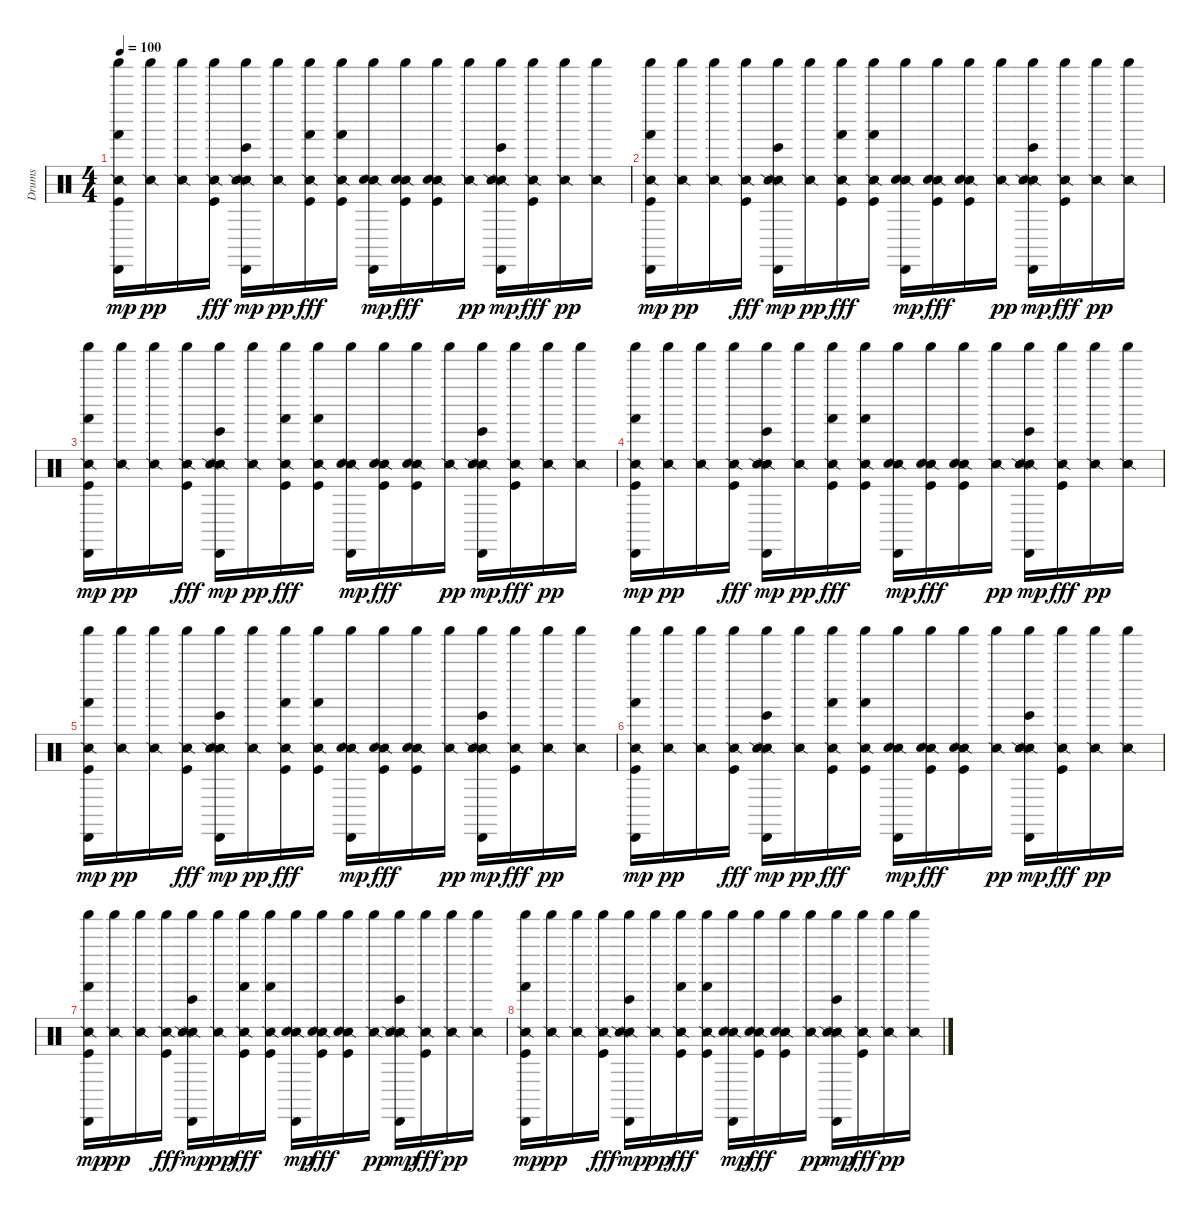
\track ("Drums" "Drums") {instrument percussion}
\staff {score}
\articulation defaults
\ts (4 4)
\tempo 100
\clef neutral
\ks c
("Shaker (hit)" "Snare (side stick) 2" "Hand (hit)" "Kick (hit)" "Cabasa (hit)").16{dy mp} ("Shaker (hit)" "Snare (side stick) 2").16{dy pp} ("Shaker (hit)" "Snare (side stick) 2").16 ("Shaker (hit)" "Snare (side stick) 2" "Kick (hit)").16{dy fff} ("Shaker (hit)" "Snare (side stick) 2" "Bongo High (hit)" "Snare (side stick) 2" "Cabasa (hit)").16{dy mp} ("Shaker (hit)" "Snare (side stick) 2").16{dy pp} ("Shaker (hit)" "Snare (side stick) 2" "Hand (hit)" "Kick (hit)").16{dy fff} ("Shaker (hit)" "Snare (side stick) 2" "Hand (hit)" "Kick (hit)").16 ("Shaker (hit)" "Snare (side stick) 2" "Snare (hit)" "Cabasa (hit)").16{dy mp} ("Shaker (hit)" "Snare (side stick) 2" "Snare (hit)" "Kick (hit)").16{dy fff} ("Shaker (hit)" "Snare (side stick) 2" "Snare (hit)" "Kick (hit)").16 ("Shaker (hit)" "Snare (side stick) 2").16{dy pp} ("Shaker (hit)" "Snare (side stick) 2" "Bongo High (hit)" "Snare (side stick) 2" "Cabasa (hit)").16{dy mp} ("Shaker (hit)" "Snare (side stick) 2" "Kick (hit)").16{dy fff} ("Shaker (hit)" "Snare (side stick) 2").16{dy pp} ("Shaker (hit)" "Snare (side stick) 2").16 |
("Shaker (hit)" "Snare (side stick) 2" "Hand (hit)" "Kick (hit)" "Cabasa (hit)").16{dy mp} ("Shaker (hit)" "Snare (side stick) 2").16{dy pp} ("Shaker (hit)" "Snare (side stick) 2").16 ("Shaker (hit)" "Snare (side stick) 2" "Kick (hit)").16{dy fff} ("Shaker (hit)" "Snare (side stick) 2" "Bongo High (hit)" "Snare (side stick) 2" "Cabasa (hit)").16{dy mp} ("Shaker (hit)" "Snare (side stick) 2").16{dy pp} ("Shaker (hit)" "Snare (side stick) 2" "Hand (hit)" "Kick (hit)").16{dy fff} ("Shaker (hit)" "Snare (side stick) 2" "Hand (hit)" "Kick (hit)").16 ("Shaker (hit)" "Snare (side stick) 2" "Snare (hit)" "Cabasa (hit)").16{dy mp} ("Shaker (hit)" "Snare (side stick) 2" "Snare (hit)" "Kick (hit)").16{dy fff} ("Shaker (hit)" "Snare (side stick) 2" "Snare (hit)" "Kick (hit)").16 ("Shaker (hit)" "Snare (side stick) 2").16{dy pp} ("Shaker (hit)" "Snare (side stick) 2" "Bongo High (hit)" "Snare (side stick) 2" "Cabasa (hit)").16{dy mp} ("Shaker (hit)" "Snare (side stick) 2" "Kick (hit)").16{dy fff} ("Shaker (hit)" "Snare (side stick) 2").16{dy pp} ("Shaker (hit)" "Snare (side stick) 2").16 |
("Shaker (hit)" "Snare (side stick) 2" "Hand (hit)" "Kick (hit)" "Cabasa (hit)").16{dy mp} ("Shaker (hit)" "Snare (side stick) 2").16{dy pp} ("Shaker (hit)" "Snare (side stick) 2").16 ("Shaker (hit)" "Snare (side stick) 2" "Kick (hit)").16{dy fff} ("Shaker (hit)" "Snare (side stick) 2" "Bongo High (hit)" "Snare (side stick) 2" "Cabasa (hit)").16{dy mp} ("Shaker (hit)" "Snare (side stick) 2").16{dy pp} ("Shaker (hit)" "Snare (side stick) 2" "Hand (hit)" "Kick (hit)").16{dy fff} ("Shaker (hit)" "Snare (side stick) 2" "Hand (hit)" "Kick (hit)").16 ("Shaker (hit)" "Snare (side stick) 2" "Snare (hit)" "Cabasa (hit)").16{dy mp} ("Shaker (hit)" "Snare (side stick) 2" "Snare (hit)" "Kick (hit)").16{dy fff} ("Shaker (hit)" "Snare (side stick) 2" "Snare (hit)" "Kick (hit)").16 ("Shaker (hit)" "Snare (side stick) 2").16{dy pp} ("Shaker (hit)" "Snare (side stick) 2" "Bongo High (hit)" "Snare (side stick) 2" "Cabasa (hit)").16{dy mp} ("Shaker (hit)" "Snare (side stick) 2" "Kick (hit)").16{dy fff} ("Shaker (hit)" "Snare (side stick) 2").16{dy pp} ("Shaker (hit)" "Snare (side stick) 2").16 |
("Shaker (hit)" "Snare (side stick) 2" "Hand (hit)" "Kick (hit)" "Cabasa (hit)").16{dy mp} ("Shaker (hit)" "Snare (side stick) 2").16{dy pp} ("Shaker (hit)" "Snare (side stick) 2").16 ("Shaker (hit)" "Snare (side stick) 2" "Kick (hit)").16{dy fff} ("Shaker (hit)" "Snare (side stick) 2" "Bongo High (hit)" "Snare (side stick) 2" "Cabasa (hit)").16{dy mp} ("Shaker (hit)" "Snare (side stick) 2").16{dy pp} ("Shaker (hit)" "Snare (side stick) 2" "Hand (hit)" "Kick (hit)").16{dy fff} ("Shaker (hit)" "Snare (side stick) 2" "Hand (hit)" "Kick (hit)").16 ("Shaker (hit)" "Snare (side stick) 2" "Snare (hit)" "Cabasa (hit)").16{dy mp} ("Shaker (hit)" "Snare (side stick) 2" "Snare (hit)" "Kick (hit)").16{dy fff} ("Shaker (hit)" "Snare (side stick) 2" "Snare (hit)" "Kick (hit)").16 ("Shaker (hit)" "Snare (side stick) 2").16{dy pp} ("Shaker (hit)" "Snare (side stick) 2" "Bongo High (hit)" "Snare (side stick) 2" "Cabasa (hit)").16{dy mp} ("Shaker (hit)" "Snare (side stick) 2" "Kick (hit)").16{dy fff} ("Shaker (hit)" "Snare (side stick) 2").16{dy pp} ("Shaker (hit)" "Snare (side stick) 2").16 |
("Shaker (hit)" "Snare (side stick) 2" "Hand (hit)" "Kick (hit)" "Cabasa (hit)").16{dy mp} ("Shaker (hit)" "Snare (side stick) 2").16{dy pp} ("Shaker (hit)" "Snare (side stick) 2").16 ("Shaker (hit)" "Snare (side stick) 2" "Kick (hit)").16{dy fff} ("Shaker (hit)" "Snare (side stick) 2" "Bongo High (hit)" "Snare (side stick) 2" "Cabasa (hit)").16{dy mp} ("Shaker (hit)" "Snare (side stick) 2").16{dy pp} ("Shaker (hit)" "Snare (side stick) 2" "Hand (hit)" "Kick (hit)").16{dy fff} ("Shaker (hit)" "Snare (side stick) 2" "Hand (hit)" "Kick (hit)").16 ("Shaker (hit)" "Snare (side stick) 2" "Snare (hit)" "Cabasa (hit)").16{dy mp} ("Shaker (hit)" "Snare (side stick) 2" "Snare (hit)" "Kick (hit)").16{dy fff} ("Shaker (hit)" "Snare (side stick) 2" "Snare (hit)" "Kick (hit)").16 ("Shaker (hit)" "Snare (side stick) 2").16{dy pp} ("Shaker (hit)" "Snare (side stick) 2" "Bongo High (hit)" "Snare (side stick) 2" "Cabasa (hit)").16{dy mp} ("Shaker (hit)" "Snare (side stick) 2" "Kick (hit)").16{dy fff} ("Shaker (hit)" "Snare (side stick) 2").16{dy pp} ("Shaker (hit)" "Snare (side stick) 2").16 |
("Shaker (hit)" "Snare (side stick) 2" "Hand (hit)" "Kick (hit)" "Cabasa (hit)").16{dy mp} ("Shaker (hit)" "Snare (side stick) 2").16{dy pp} ("Shaker (hit)" "Snare (side stick) 2").16 ("Shaker (hit)" "Snare (side stick) 2" "Kick (hit)").16{dy fff} ("Shaker (hit)" "Snare (side stick) 2" "Bongo High (hit)" "Snare (side stick) 2" "Cabasa (hit)").16{dy mp} ("Shaker (hit)" "Snare (side stick) 2").16{dy pp} ("Shaker (hit)" "Snare (side stick) 2" "Hand (hit)" "Kick (hit)").16{dy fff} ("Shaker (hit)" "Snare (side stick) 2" "Hand (hit)" "Kick (hit)").16 ("Shaker (hit)" "Snare (side stick) 2" "Snare (hit)" "Cabasa (hit)").16{dy mp} ("Shaker (hit)" "Snare (side stick) 2" "Snare (hit)" "Kick (hit)").16{dy fff} ("Shaker (hit)" "Snare (side stick) 2" "Snare (hit)" "Kick (hit)").16 ("Shaker (hit)" "Snare (side stick) 2").16{dy pp} ("Shaker (hit)" "Snare (side stick) 2" "Bongo High (hit)" "Snare (side stick) 2" "Cabasa (hit)").16{dy mp} ("Shaker (hit)" "Snare (side stick) 2" "Kick (hit)").16{dy fff} ("Shaker (hit)" "Snare (side stick) 2").16{dy pp} ("Shaker (hit)" "Snare (side stick) 2").16 |
("Shaker (hit)" "Snare (side stick) 2" "Hand (hit)" "Kick (hit)" "Cabasa (hit)").16{dy mp} ("Shaker (hit)" "Snare (side stick) 2").16{dy pp} ("Shaker (hit)" "Snare (side stick) 2").16 ("Shaker (hit)" "Snare (side stick) 2" "Kick (hit)").16{dy fff} ("Shaker (hit)" "Snare (side stick) 2" "Bongo High (hit)" "Snare (side stick) 2" "Cabasa (hit)").16{dy mp} ("Shaker (hit)" "Snare (side stick) 2").16{dy pp} ("Shaker (hit)" "Snare (side stick) 2" "Hand (hit)" "Kick (hit)").16{dy fff} ("Shaker (hit)" "Snare (side stick) 2" "Hand (hit)" "Kick (hit)").16 ("Shaker (hit)" "Snare (side stick) 2" "Snare (hit)" "Cabasa (hit)").16{dy mp} ("Shaker (hit)" "Snare (side stick) 2" "Snare (hit)" "Kick (hit)").16{dy fff} ("Shaker (hit)" "Snare (side stick) 2" "Snare (hit)" "Kick (hit)").16 ("Shaker (hit)" "Snare (side stick) 2").16{dy pp} ("Shaker (hit)" "Snare (side stick) 2" "Bongo High (hit)" "Snare (side stick) 2" "Cabasa (hit)").16{dy mp} ("Shaker (hit)" "Snare (side stick) 2" "Kick (hit)").16{dy fff} ("Shaker (hit)" "Snare (side stick) 2").16{dy pp} ("Shaker (hit)" "Snare (side stick) 2").16 |
("Shaker (hit)" "Snare (side stick) 2" "Hand (hit)" "Kick (hit)" "Cabasa (hit)").16{dy mp} ("Shaker (hit)" "Snare (side stick) 2").16{dy pp} ("Shaker (hit)" "Snare (side stick) 2").16 ("Shaker (hit)" "Snare (side stick) 2" "Kick (hit)").16{dy fff} ("Shaker (hit)" "Snare (side stick) 2" "Bongo High (hit)" "Snare (side stick) 2" "Cabasa (hit)").16{dy mp} ("Shaker (hit)" "Snare (side stick) 2").16{dy pp} ("Shaker (hit)" "Snare (side stick) 2" "Hand (hit)" "Kick (hit)").16{dy fff} ("Shaker (hit)" "Snare (side stick) 2" "Hand (hit)" "Kick (hit)").16 ("Shaker (hit)" "Snare (side stick) 2" "Snare (hit)" "Cabasa (hit)").16{dy mp} ("Shaker (hit)" "Snare (side stick) 2" "Snare (hit)" "Kick (hit)").16{dy fff} ("Shaker (hit)" "Snare (side stick) 2" "Snare (hit)" "Kick (hit)").16 ("Shaker (hit)" "Snare (side stick) 2").16{dy pp} ("Shaker (hit)" "Snare (side stick) 2" "Bongo High (hit)" "Snare (side stick) 2" "Cabasa (hit)").16{dy mp} ("Shaker (hit)" "Snare (side stick) 2" "Kick (hit)").16{dy fff} ("Shaker (hit)" "Snare (side stick) 2").16{dy pp} ("Shaker (hit)" "Snare (side stick) 2").16
